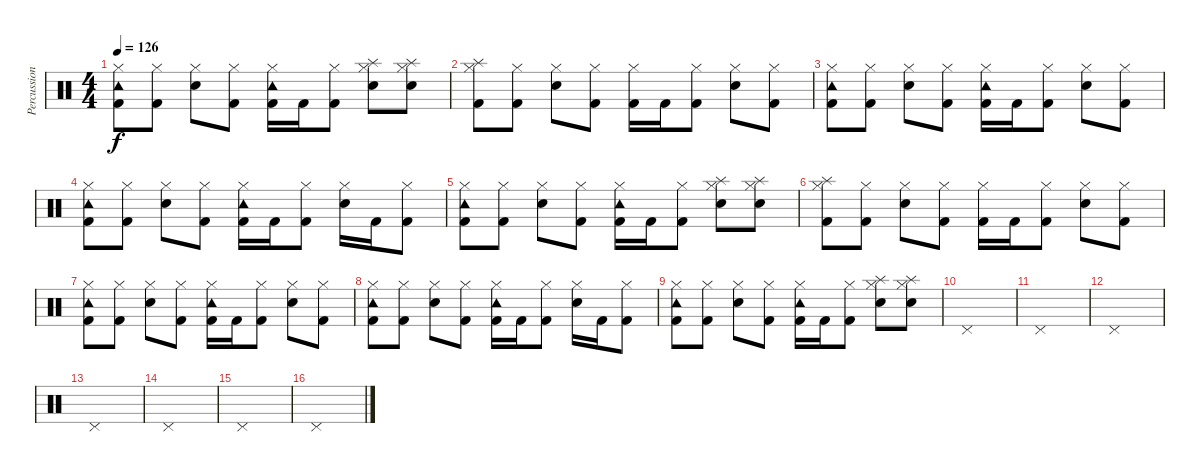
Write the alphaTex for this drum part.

\track ("Percussion" "Percussion") {instrument percussion}
\staff {score}
\articulation defaults
\ts (4 4)
\tempo 126
\clef neutral
\ks c
("Hi-Hat (closed)" "Kick (hit) 2" "Tambourine (hit)").8{dy f} ("Hi-Hat (closed)" "Kick (hit) 2").8 ("Hi-Hat (closed)" "Electric Snare (hit)").8 ("Hi-Hat (closed)" "Kick (hit) 2").8 ("Hi-Hat (closed)" "Kick (hit) 2" "Tambourine (hit)").16 "Kick (hit) 2".16 ("Hi-Hat (closed)" "Kick (hit) 2").8 ("Hi-Hat (closed)" "Electric Snare (hit)" "Splash (hit)").8 ("Hi-Hat (closed)" "Electric Snare (hit)" "Splash (hit)").8 |
("Hi-Hat (closed)" "Kick (hit) 2" "Splash (hit)").8 ("Hi-Hat (closed)" "Kick (hit) 2").8 ("Hi-Hat (closed)" "Electric Snare (hit)").8 ("Hi-Hat (closed)" "Kick (hit) 2").8 ("Hi-Hat (closed)" "Kick (hit) 2").16 "Kick (hit) 2".16 ("Hi-Hat (closed)" "Kick (hit) 2").8 ("Hi-Hat (closed)" "Electric Snare (hit)").8 ("Hi-Hat (closed)" "Kick (hit) 2").8 |
("Hi-Hat (closed)" "Kick (hit) 2" "Tambourine (hit)").8 ("Hi-Hat (closed)" "Kick (hit) 2").8 ("Hi-Hat (closed)" "Electric Snare (hit)").8 ("Hi-Hat (closed)" "Kick (hit) 2").8 ("Hi-Hat (closed)" "Kick (hit) 2" "Tambourine (hit)").16 "Kick (hit) 2".16 ("Hi-Hat (closed)" "Kick (hit) 2").8 ("Hi-Hat (closed)" "Electric Snare (hit)").8 ("Hi-Hat (closed)" "Kick (hit) 2").8 |
("Hi-Hat (closed)" "Kick (hit) 2" "Tambourine (hit)").8 ("Hi-Hat (closed)" "Kick (hit) 2").8 ("Hi-Hat (closed)" "Electric Snare (hit)").8 ("Hi-Hat (closed)" "Kick (hit) 2").8 ("Hi-Hat (closed)" "Kick (hit) 2" "Tambourine (hit)").16 "Kick (hit) 2".16 ("Hi-Hat (closed)" "Kick (hit) 2").8 ("Hi-Hat (closed)" "Electric Snare (hit)").16 "Kick (hit) 2".16 ("Hi-Hat (closed)" "Kick (hit) 2").8 |
("Hi-Hat (closed)" "Kick (hit) 2" "Tambourine (hit)").8 ("Hi-Hat (closed)" "Kick (hit) 2").8 ("Hi-Hat (closed)" "Electric Snare (hit)").8 ("Hi-Hat (closed)" "Kick (hit) 2").8 ("Hi-Hat (closed)" "Kick (hit) 2" "Tambourine (hit)").16 "Kick (hit) 2".16 ("Hi-Hat (closed)" "Kick (hit) 2").8 ("Hi-Hat (closed)" "Electric Snare (hit)" "Splash (hit)").8 ("Hi-Hat (closed)" "Electric Snare (hit)" "Splash (hit)").8 |
("Hi-Hat (closed)" "Kick (hit) 2" "Splash (hit)").8{volume 0} ("Hi-Hat (closed)" "Kick (hit) 2").8 ("Hi-Hat (closed)" "Electric Snare (hit)").8 ("Hi-Hat (closed)" "Kick (hit) 2").8 ("Hi-Hat (closed)" "Kick (hit) 2").16 "Kick (hit) 2".16 ("Hi-Hat (closed)" "Kick (hit) 2").8 ("Hi-Hat (closed)" "Electric Snare (hit)").8 ("Hi-Hat (closed)" "Kick (hit) 2").8 |
("Hi-Hat (closed)" "Kick (hit) 2" "Tambourine (hit)").8 ("Hi-Hat (closed)" "Kick (hit) 2").8 ("Hi-Hat (closed)" "Electric Snare (hit)").8 ("Hi-Hat (closed)" "Kick (hit) 2").8 ("Hi-Hat (closed)" "Kick (hit) 2" "Tambourine (hit)").16 "Kick (hit) 2".16 ("Hi-Hat (closed)" "Kick (hit) 2").8 ("Hi-Hat (closed)" "Electric Snare (hit)").8 ("Hi-Hat (closed)" "Kick (hit) 2").8 |
("Hi-Hat (closed)" "Kick (hit) 2" "Tambourine (hit)").8 ("Hi-Hat (closed)" "Kick (hit) 2").8 ("Hi-Hat (closed)" "Electric Snare (hit)").8 ("Hi-Hat (closed)" "Kick (hit) 2").8 ("Hi-Hat (closed)" "Kick (hit) 2" "Tambourine (hit)").16 "Kick (hit) 2".16 ("Hi-Hat (closed)" "Kick (hit) 2").8 ("Hi-Hat (closed)" "Electric Snare (hit)").16 "Kick (hit) 2".16 ("Hi-Hat (closed)" "Kick (hit) 2").8 |
("Hi-Hat (closed)" "Kick (hit) 2" "Tambourine (hit)").8 ("Hi-Hat (closed)" "Kick (hit) 2").8 ("Hi-Hat (closed)" "Electric Snare (hit)").8 ("Hi-Hat (closed)" "Kick (hit) 2").8 ("Hi-Hat (closed)" "Kick (hit) 2" "Tambourine (hit)").16 "Kick (hit) 2".16 ("Hi-Hat (closed)" "Kick (hit) 2").8 ("Hi-Hat (closed)" "Electric Snare (hit)" "Splash (hit)").8 ("Hi-Hat (closed)" "Electric Snare (hit)" "Splash (hit)").8 |
"Pedal Hi-Hat (hit)".1{volume 13} |
"Pedal Hi-Hat (hit)".1 |
"Pedal Hi-Hat (hit)".1 |
"Pedal Hi-Hat (hit)".1 |
"Pedal Hi-Hat (hit)".1 |
"Pedal Hi-Hat (hit)".1 |
"Pedal Hi-Hat (hit)".1
